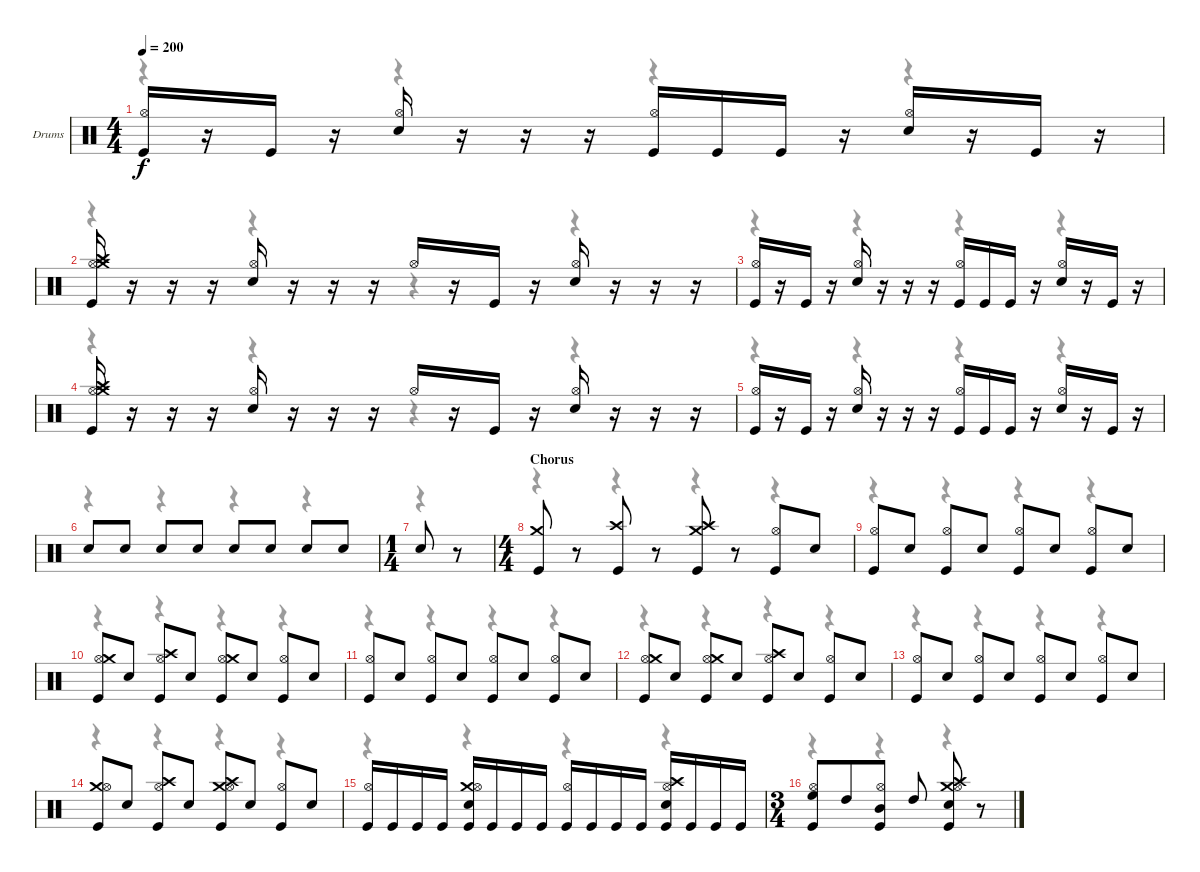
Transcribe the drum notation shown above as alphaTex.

\bracketExtendMode nobrackets
\firstSystemTrackNameOrientation horizontal
\otherSystemsTrackNameOrientation horizontal
\track ("Drumkit" "Drums") {instrument percussion}
\staff {score}
\articulation defaults
\voice
\ts (4 4)
\tempo 200
\clef neutral
\ks c
("Kick (hit)" "Hi-Hat (open)").16{dy f} r.16 "Kick (hit)".16 r.16 ("Snare (hit) 2" "Hi-Hat (open)").16 r.16 r.16 r.16 ("Kick (hit)" "Hi-Hat (open)").16 "Kick (hit)".16 "Kick (hit)".16 r.16 ("Snare (hit) 2" "Hi-Hat (open)").16 r.16 "Kick (hit)".16 r.16 |
("Kick (hit)" "Hi-Hat (open)" "Crash medium (hit)" "Crash high (hit)").16 r.16 r.16 r.16 ("Snare (hit) 2" "Hi-Hat (open)").16 r.16 r.16 r.16 "Hi-Hat (open)".16 r.16 "Kick (hit)".16 r.16 ("Snare (hit) 2" "Hi-Hat (open)").16 r.16 r.16 r.16 |
("Kick (hit)" "Hi-Hat (open)").16 r.16 "Kick (hit)".16 r.16 ("Snare (hit) 2" "Hi-Hat (open)").16 r.16 r.16 r.16 ("Kick (hit)" "Hi-Hat (open)").16 "Kick (hit)".16 "Kick (hit)".16 r.16 ("Snare (hit) 2" "Hi-Hat (open)").16 r.16 "Kick (hit)".16 r.16 |
("Kick (hit)" "Hi-Hat (open)" "Crash medium (hit)" "Crash high (hit)").16 r.16 r.16 r.16 ("Snare (hit) 2" "Hi-Hat (open)").16 r.16 r.16 r.16 "Hi-Hat (open)".16 r.16 "Kick (hit)".16 r.16 ("Snare (hit) 2" "Hi-Hat (open)").16 r.16 r.16 r.16 |
("Kick (hit)" "Hi-Hat (open)").16 r.16 "Kick (hit)".16 r.16 ("Snare (hit) 2" "Hi-Hat (open)").16 r.16 r.16 r.16 ("Kick (hit)" "Hi-Hat (open)").16 "Kick (hit)".16 "Kick (hit)".16 r.16 ("Snare (hit) 2" "Hi-Hat (open)").16 r.16 "Kick (hit)".16 r.16 |
"Snare (hit) 2".8 "Snare (hit) 2".8 "Snare (hit) 2".8 "Snare (hit) 2".8 "Snare (hit) 2".8 "Snare (hit) 2".8 "Snare (hit) 2".8 "Snare (hit) 2".8 |
\ts (1 4)
\beaming (8 2)
"Snare (hit) 2".8 r.8 |
\ts (4 4)
\beaming (8 2 2 2 2)
\section ("" "Chorus")
("Kick (hit)" "Crash medium (hit)").8 r.8 ("Kick (hit)" "Crash high (hit)").8 r.8 ("Kick (hit)" "Crash medium (hit)" "Crash high (hit)").8 r.8 ("Kick (hit)" "Hi-Hat (open)").8 "Snare (hit) 2".8 |
("Hi-Hat (open)" "Kick (hit)").8 "Snare (hit) 2".8 ("Hi-Hat (open)" "Kick (hit)").8 "Snare (hit) 2".8 ("Hi-Hat (open)" "Kick (hit)").8 "Snare (hit) 2".8 ("Hi-Hat (open)" "Kick (hit)").8 "Snare (hit) 2".8 |
("Hi-Hat (open)" "Kick (hit)" "Crash medium (hit)").8 "Snare (hit) 2".8 ("Hi-Hat (open)" "Kick (hit)" "Crash high (hit)").8 "Snare (hit) 2".8 ("Hi-Hat (open)" "Kick (hit)" "Crash medium (hit)").8 "Snare (hit) 2".8 ("Hi-Hat (open)" "Kick (hit)").8 "Snare (hit) 2".8 |
("Hi-Hat (open)" "Kick (hit)").8 "Snare (hit) 2".8 ("Hi-Hat (open)" "Kick (hit)").8 "Snare (hit) 2".8 ("Hi-Hat (open)" "Kick (hit)").8 "Snare (hit) 2".8 ("Hi-Hat (open)" "Kick (hit)").8 "Snare (hit) 2".8 |
("Hi-Hat (open)" "Kick (hit)" "Crash medium (hit)").8 "Snare (hit) 2".8 ("Hi-Hat (open)" "Kick (hit)" "Crash medium (hit)").8 "Snare (hit) 2".8 ("Hi-Hat (open)" "Kick (hit)" "Crash high (hit)").8 "Snare (hit) 2".8 ("Hi-Hat (open)" "Kick (hit)").8 "Snare (hit) 2".8 |
("Hi-Hat (open)" "Kick (hit)").8 "Snare (hit) 2".8 ("Kick (hit)" "Hi-Hat (open)").8 "Snare (hit) 2".8 ("Kick (hit)" "Hi-Hat (open)").8 "Snare (hit) 2".8 ("Kick (hit)" "Hi-Hat (open)").8 "Snare (hit) 2".8 |
("Crash medium (hit)" "Kick (hit)" "Hi-Hat (open)").8 "Snare (hit) 2".8 ("Crash high (hit)" "Kick (hit)" "Hi-Hat (open)").8 "Snare (hit) 2".8 ("Crash high (hit)" "Crash medium (hit)" "Kick (hit)" "Hi-Hat (open)").8 "Snare (hit) 2".8 ("Kick (hit)" "Hi-Hat (open)").8 "Snare (hit) 2".8 |
("Kick (hit)" "Hi-Hat (open)").16 "Kick (hit)".16 "Kick (hit)".16 "Kick (hit)".16 ("Kick (hit)" "Snare (hit) 2" "Crash medium (hit)" "Hi-Hat (open)").16 "Kick (hit)".16 "Kick (hit)".16 "Kick (hit)".16 ("Hi-Hat (open)" "Kick (hit)").16 "Kick (hit)".16 "Kick (hit)".16 "Kick (hit)".16 ("Kick (hit)" "Snare (hit) 2" "Hi-Hat (open)" "Crash high (hit)").16 "Kick (hit)".16 "Kick (hit)".16 "Kick (hit)".16 |
\ts (3 4)
\beaming (8 3 1 1 1)
("Kick (hit)" "High Floor Tom (hit)" "Hi-Hat (open)").8 "High Tom (hit)".8 ("Kick (hit)" "Mid Tom (hit)" "Hi-Hat (open)").8 "High Tom (hit)".8 ("Kick (hit)" "Snare (hit) 2" "Crash medium (hit)" "Hi-Hat (open)" "Crash high (hit)").8 r.8
\voice
\clef neutral
\ottava regular
\simile none
\ks c
r.4{dy mf} r.4 r.4 r.4 |
r.4 r.4 r.4 r.4 |
r.4 r.4 r.4 r.4 |
r.4 r.4 r.4 r.4 |
r.4 r.4 r.4 r.4 |
r.4 r.4 r.4 r.4 |
r.4 |
r.4 r.4 r.4 r.4 |
r.4 r.4 r.4 r.4 |
r.4 r.4 r.4 r.4 |
r.4 r.4 r.4 r.4 |
r.4 r.4 r.4 r.4 |
r.4 r.4 r.4 r.4 |
r.4 r.4 r.4 r.4 |
r.4 r.4 r.4 r.4 |
r.4 r.4 r.4
